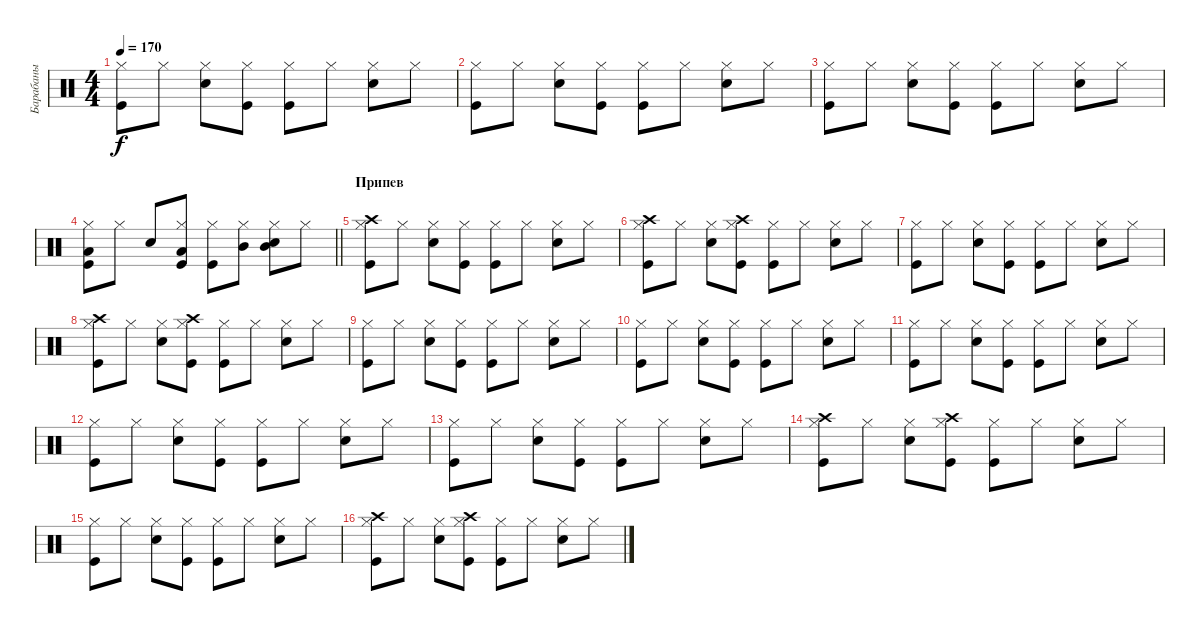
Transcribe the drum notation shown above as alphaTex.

\track ("Барабаны" "Барабаны") {instrument percussion}
\staff {score}
\articulation defaults
\ts (4 4)
\tempo 170
\clef neutral
\ks c
("Kick (hit)" "Hi-Hat (closed)").8{dy f} "Hi-Hat (closed)".8 ("Snare (hit) 2" "Hi-Hat (closed)").8 ("Kick (hit)" "Hi-Hat (closed)").8 ("Kick (hit)" "Hi-Hat (closed)").8 "Hi-Hat (closed)".8 ("Snare (hit) 2" "Hi-Hat (closed)").8 "Hi-Hat (closed)".8 |
("Kick (hit)" "Hi-Hat (closed)").8 "Hi-Hat (closed)".8 ("Snare (hit) 2" "Hi-Hat (closed)").8 ("Kick (hit)" "Hi-Hat (closed)").8 ("Kick (hit)" "Hi-Hat (closed)").8 "Hi-Hat (closed)".8 ("Snare (hit) 2" "Hi-Hat (closed)").8 "Hi-Hat (closed)".8 |
("Kick (hit)" "Hi-Hat (closed)").8 "Hi-Hat (closed)".8 ("Snare (hit) 2" "Hi-Hat (closed)").8 ("Kick (hit)" "Hi-Hat (closed)").8 ("Kick (hit)" "Hi-Hat (closed)").8 "Hi-Hat (closed)".8 ("Snare (hit) 2" "Hi-Hat (closed)").8 "Hi-Hat (closed)".8 |
\barLineRight lightlight
("Kick (hit)" "Hi-Hat (closed)" "Low Floor Tom (hit)").8 "Hi-Hat (closed)".8 "Snare (hit) 2".8 ("Kick (hit)" "Hi-Hat (closed)" "Low Tom (hit)").8 ("Kick (hit)" "Hi-Hat (closed)").8 ("Hi-Hat (closed)" "Mid Tom (hit)").8 ("Snare (hit) 2" "Hi-Hat (closed)" "Mid Tom (hit)").8 "Hi-Hat (closed)".8 |
\section ("" "Припев")
("Kick (hit)" "Hi-Hat (closed)" "Crash high (hit)").8 "Hi-Hat (closed)".8 ("Snare (hit) 2" "Hi-Hat (closed)").8 ("Kick (hit)" "Hi-Hat (closed)").8 ("Kick (hit)" "Hi-Hat (closed)").8 "Hi-Hat (closed)".8 ("Snare (hit) 2" "Hi-Hat (closed)").8 "Hi-Hat (closed)".8 |
("Kick (hit)" "Hi-Hat (closed)" "Crash high (hit)").8 "Hi-Hat (closed)".8 ("Snare (hit) 2" "Hi-Hat (closed)").8 ("Kick (hit)" "Hi-Hat (closed)" "Crash high (hit)").8 ("Kick (hit)" "Hi-Hat (closed)").8 "Hi-Hat (closed)".8 ("Snare (hit) 2" "Hi-Hat (closed)").8 "Hi-Hat (closed)".8 |
("Kick (hit)" "Hi-Hat (closed)").8 "Hi-Hat (closed)".8 ("Snare (hit) 2" "Hi-Hat (closed)").8 ("Kick (hit)" "Hi-Hat (closed)").8 ("Kick (hit)" "Hi-Hat (closed)").8 "Hi-Hat (closed)".8 ("Snare (hit) 2" "Hi-Hat (closed)").8 "Hi-Hat (closed)".8 |
("Kick (hit)" "Hi-Hat (closed)" "Crash high (hit)").8 "Hi-Hat (closed)".8 ("Snare (hit) 2" "Hi-Hat (closed)").8 ("Kick (hit)" "Hi-Hat (closed)" "Crash high (hit)").8 ("Kick (hit)" "Hi-Hat (closed)").8 "Hi-Hat (closed)".8 ("Snare (hit) 2" "Hi-Hat (closed)").8 "Hi-Hat (closed)".8 |
("Kick (hit)" "Hi-Hat (closed)").8 "Hi-Hat (closed)".8 ("Snare (hit) 2" "Hi-Hat (closed)").8 ("Kick (hit)" "Hi-Hat (closed)").8 ("Kick (hit)" "Hi-Hat (closed)").8 "Hi-Hat (closed)".8 ("Snare (hit) 2" "Hi-Hat (closed)").8 "Hi-Hat (closed)".8 |
("Kick (hit)" "Hi-Hat (closed)").8 "Hi-Hat (closed)".8 ("Snare (hit) 2" "Hi-Hat (closed)").8 ("Kick (hit)" "Hi-Hat (closed)").8 ("Kick (hit)" "Hi-Hat (closed)").8 "Hi-Hat (closed)".8 ("Snare (hit) 2" "Hi-Hat (closed)").8 "Hi-Hat (closed)".8 |
("Kick (hit)" "Hi-Hat (closed)").8 "Hi-Hat (closed)".8 ("Snare (hit) 2" "Hi-Hat (closed)").8 ("Kick (hit)" "Hi-Hat (closed)").8 ("Kick (hit)" "Hi-Hat (closed)").8 "Hi-Hat (closed)".8 ("Snare (hit) 2" "Hi-Hat (closed)").8 "Hi-Hat (closed)".8 |
("Kick (hit)" "Hi-Hat (closed)").8 "Hi-Hat (closed)".8 ("Snare (hit) 2" "Hi-Hat (closed)").8 ("Kick (hit)" "Hi-Hat (closed)").8 ("Kick (hit)" "Hi-Hat (closed)").8 "Hi-Hat (closed)".8 ("Snare (hit) 2" "Hi-Hat (closed)").8 "Hi-Hat (closed)".8 |
("Kick (hit)" "Hi-Hat (closed)").8 "Hi-Hat (closed)".8 ("Snare (hit) 2" "Hi-Hat (closed)").8 ("Kick (hit)" "Hi-Hat (closed)").8 ("Kick (hit)" "Hi-Hat (closed)").8 "Hi-Hat (closed)".8 ("Snare (hit) 2" "Hi-Hat (closed)").8 "Hi-Hat (closed)".8 |
("Kick (hit)" "Hi-Hat (closed)" "Crash high (hit)").8 "Hi-Hat (closed)".8 ("Snare (hit) 2" "Hi-Hat (closed)").8 ("Kick (hit)" "Hi-Hat (closed)" "Crash high (hit)").8 ("Kick (hit)" "Hi-Hat (closed)").8 "Hi-Hat (closed)".8 ("Snare (hit) 2" "Hi-Hat (closed)").8 "Hi-Hat (closed)".8 |
("Kick (hit)" "Hi-Hat (closed)").8 "Hi-Hat (closed)".8 ("Snare (hit) 2" "Hi-Hat (closed)").8 ("Kick (hit)" "Hi-Hat (closed)").8 ("Kick (hit)" "Hi-Hat (closed)").8 "Hi-Hat (closed)".8 ("Snare (hit) 2" "Hi-Hat (closed)").8 "Hi-Hat (closed)".8 |
("Kick (hit)" "Hi-Hat (closed)" "Crash high (hit)").8 "Hi-Hat (closed)".8 ("Snare (hit) 2" "Hi-Hat (closed)").8 ("Kick (hit)" "Hi-Hat (closed)" "Crash high (hit)").8 ("Kick (hit)" "Hi-Hat (closed)").8 "Hi-Hat (closed)".8 ("Snare (hit) 2" "Hi-Hat (closed)").8 "Hi-Hat (closed)".8
